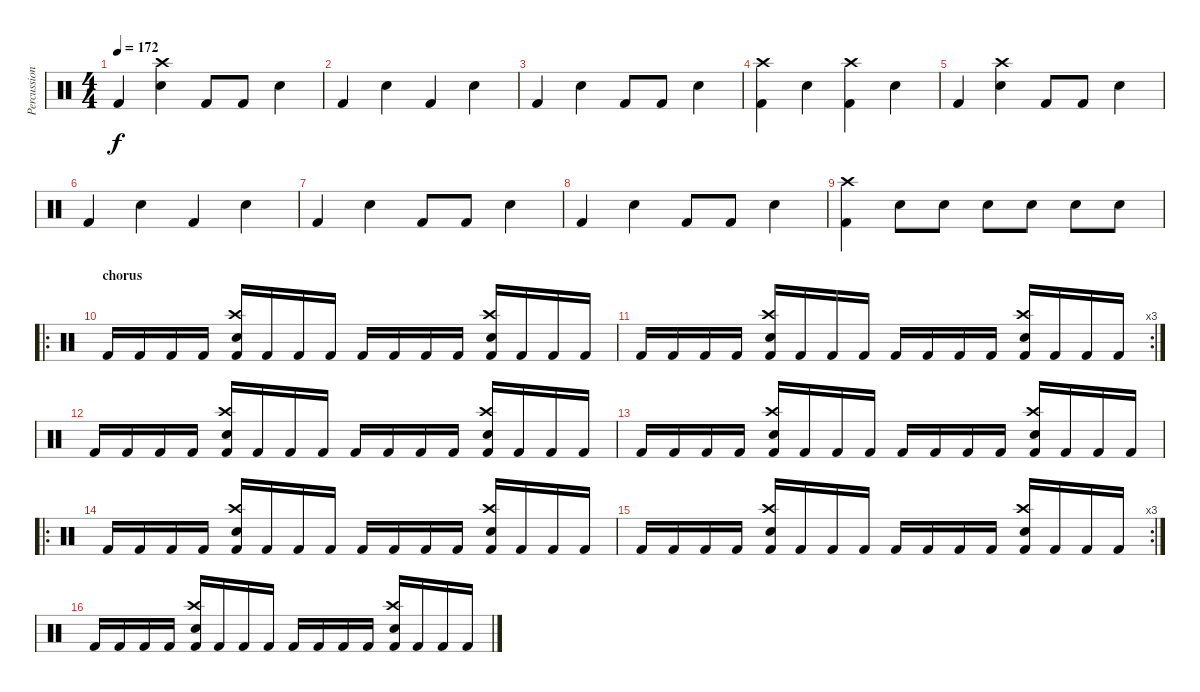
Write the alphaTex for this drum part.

\track ("Percussion" "Percussion") {instrument percussion}
\staff {score}
\articulation defaults
\ts (4 4)
\tempo 172
\clef neutral
\ks c "Kick (hit) 2".4{dy f}
("Crash high (hit)" "Electric Snare (hit)").4 "Kick (hit) 2".8 "Kick (hit) 2".8 "Electric Snare (hit)".4 |
"Kick (hit) 2".4 "Electric Snare (hit)".4 "Kick (hit) 2".4 "Electric Snare (hit)".4 |
"Kick (hit) 2".4 "Electric Snare (hit)".4 "Kick (hit) 2".8 "Kick (hit) 2".8 "Electric Snare (hit)".4 |
("Crash high (hit)" "Kick (hit) 2").4 "Electric Snare (hit)".4 ("Crash high (hit)" "Kick (hit) 2").4 "Electric Snare (hit)".4 |
"Kick (hit) 2".4 ("Crash high (hit)" "Electric Snare (hit)").4 "Kick (hit) 2".8 "Kick (hit) 2".8 "Electric Snare (hit)".4 |
"Kick (hit) 2".4 "Electric Snare (hit)".4 "Kick (hit) 2".4 "Electric Snare (hit)".4 |
"Kick (hit) 2".4 "Electric Snare (hit)".4 "Kick (hit) 2".8 "Kick (hit) 2".8 "Electric Snare (hit)".4 |
"Kick (hit) 2".4 "Electric Snare (hit)".4 "Kick (hit) 2".8 "Kick (hit) 2".8 "Electric Snare (hit)".4 |
("Crash high (hit)" "Kick (hit) 2").4 "Electric Snare (hit)".8 "Electric Snare (hit)".8 "Electric Snare (hit)".8 "Electric Snare (hit)".8 "Electric Snare (hit)".8 "Electric Snare (hit)".8 |
\ro
\section ("" "chorus")
"Kick (hit) 2".16 "Kick (hit) 2".16 "Kick (hit) 2".16 "Kick (hit) 2".16 ("Crash high (hit)" "Electric Snare (hit)" "Kick (hit) 2").16 "Kick (hit) 2".16 "Kick (hit) 2".16 "Kick (hit) 2".16 "Kick (hit) 2".16 "Kick (hit) 2".16 "Kick (hit) 2".16 "Kick (hit) 2".16 ("Crash high (hit)" "Electric Snare (hit)" "Kick (hit) 2").16 "Kick (hit) 2".16 "Kick (hit) 2".16 "Kick (hit) 2".16 |
\rc 3 "Kick (hit) 2".16 "Kick (hit) 2".16 "Kick (hit) 2".16 "Kick (hit) 2".16
("Crash high (hit)" "Electric Snare (hit)" "Kick (hit) 2").16 "Kick (hit) 2".16 "Kick (hit) 2".16 "Kick (hit) 2".16 "Kick (hit) 2".16 "Kick (hit) 2".16 "Kick (hit) 2".16 "Kick (hit) 2".16 ("Crash high (hit)" "Electric Snare (hit)" "Kick (hit) 2").16 "Kick (hit) 2".16 "Kick (hit) 2".16 "Kick (hit) 2".16 |
"Kick (hit) 2".16 "Kick (hit) 2".16 "Kick (hit) 2".16 "Kick (hit) 2".16 ("Crash high (hit)" "Electric Snare (hit)" "Kick (hit) 2").16 "Kick (hit) 2".16 "Kick (hit) 2".16 "Kick (hit) 2".16 "Kick (hit) 2".16 "Kick (hit) 2".16 "Kick (hit) 2".16 "Kick (hit) 2".16 ("Crash high (hit)" "Electric Snare (hit)" "Kick (hit) 2").16 "Kick (hit) 2".16 "Kick (hit) 2".16 "Kick (hit) 2".16 |
"Kick (hit) 2".16 "Kick (hit) 2".16 "Kick (hit) 2".16 "Kick (hit) 2".16 ("Crash high (hit)" "Electric Snare (hit)" "Kick (hit) 2").16 "Kick (hit) 2".16 "Kick (hit) 2".16 "Kick (hit) 2".16 "Kick (hit) 2".16 "Kick (hit) 2".16 "Kick (hit) 2".16 "Kick (hit) 2".16 ("Crash high (hit)" "Electric Snare (hit)" "Kick (hit) 2").16 "Kick (hit) 2".16 "Kick (hit) 2".16 "Kick (hit) 2".16 |
\ro "Kick (hit) 2".16 "Kick (hit) 2".16 "Kick (hit) 2".16 "Kick (hit) 2".16
("Crash high (hit)" "Electric Snare (hit)" "Kick (hit) 2").16 "Kick (hit) 2".16 "Kick (hit) 2".16 "Kick (hit) 2".16 "Kick (hit) 2".16 "Kick (hit) 2".16 "Kick (hit) 2".16 "Kick (hit) 2".16 ("Crash high (hit)" "Electric Snare (hit)" "Kick (hit) 2").16 "Kick (hit) 2".16 "Kick (hit) 2".16 "Kick (hit) 2".16 |
\rc 3 "Kick (hit) 2".16 "Kick (hit) 2".16 "Kick (hit) 2".16 "Kick (hit) 2".16
("Crash high (hit)" "Electric Snare (hit)" "Kick (hit) 2").16 "Kick (hit) 2".16 "Kick (hit) 2".16 "Kick (hit) 2".16 "Kick (hit) 2".16 "Kick (hit) 2".16 "Kick (hit) 2".16 "Kick (hit) 2".16 ("Crash high (hit)" "Electric Snare (hit)" "Kick (hit) 2").16 "Kick (hit) 2".16 "Kick (hit) 2".16 "Kick (hit) 2".16 |
"Kick (hit) 2".16 "Kick (hit) 2".16 "Kick (hit) 2".16 "Kick (hit) 2".16 ("Crash high (hit)" "Electric Snare (hit)" "Kick (hit) 2").16 "Kick (hit) 2".16 "Kick (hit) 2".16 "Kick (hit) 2".16 "Kick (hit) 2".16 "Kick (hit) 2".16 "Kick (hit) 2".16 "Kick (hit) 2".16 ("Crash high (hit)" "Electric Snare (hit)" "Kick (hit) 2").16 "Kick (hit) 2".16 "Kick (hit) 2".16 "Kick (hit) 2".16
